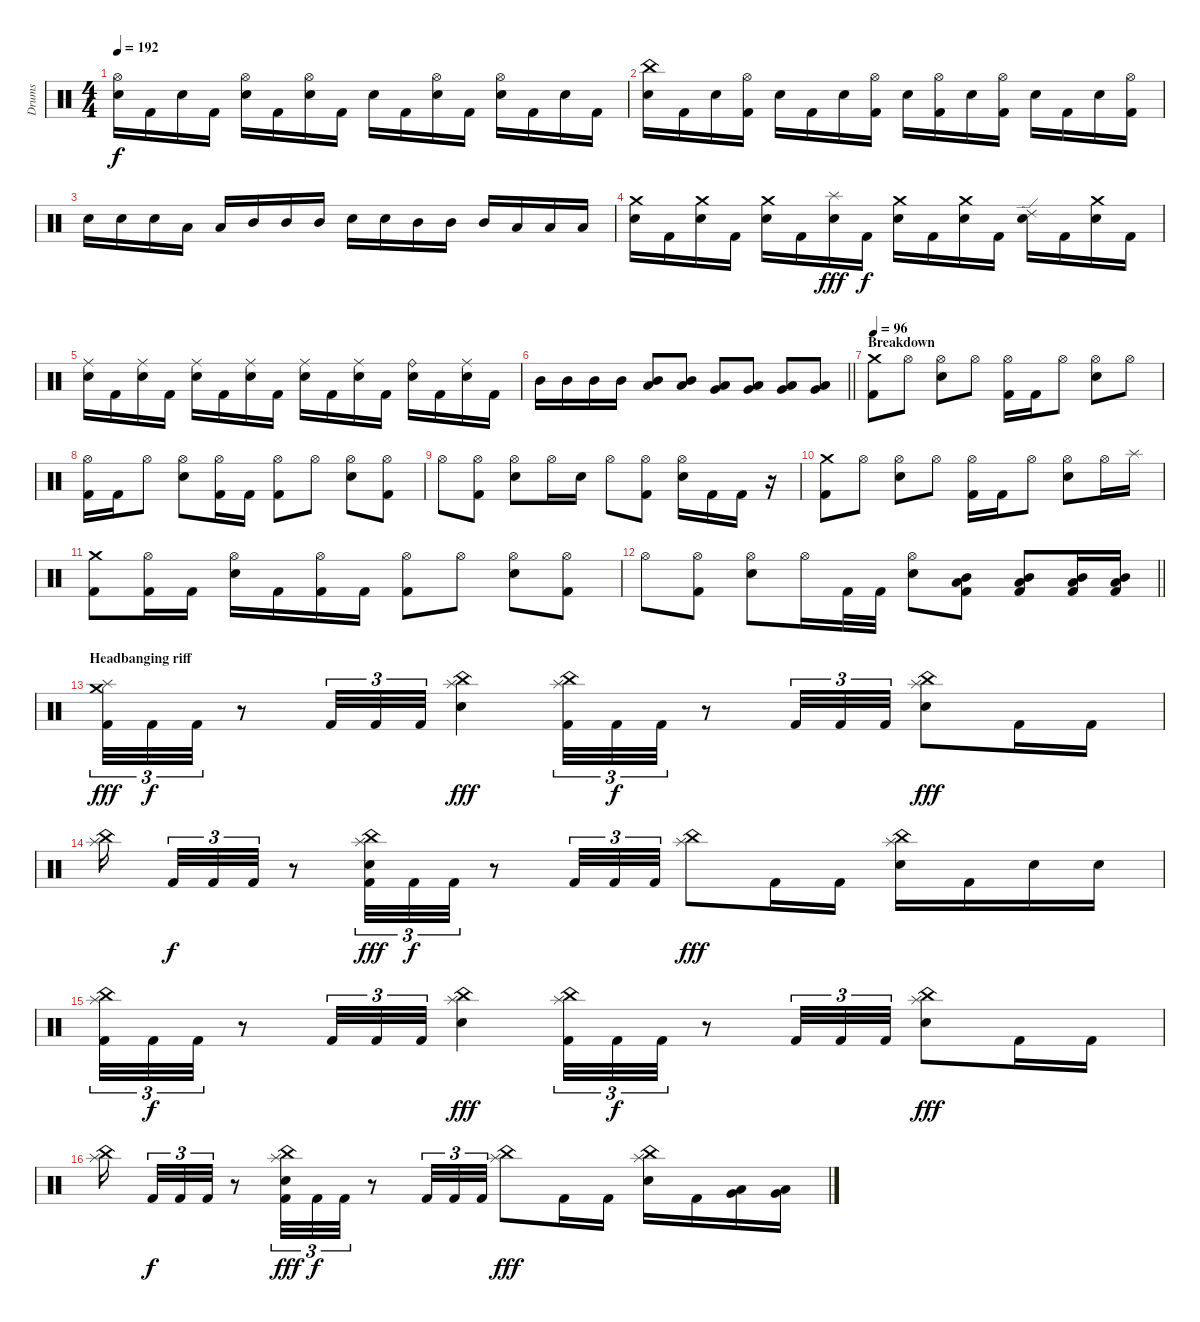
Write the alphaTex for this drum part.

\track ("Drums" "Drums") {instrument percussion}
\staff {score}
\articulation defaults
\ts (4 4)
\tempo 192
\clef neutral
\ks c
("Hi-Hat (open)" "Electric Snare (hit)").16{dy f} "Kick (hit) 2".16 "Electric Snare (hit)".16 "Kick (hit) 2".16 ("Hi-Hat (open)" "Electric Snare (hit)").16 "Kick (hit) 2".16 ("Hi-Hat (open)" "Electric Snare (hit)").16 "Kick (hit) 2".16 "Electric Snare (hit)".16 "Kick (hit) 2".16 ("Hi-Hat (open)" "Electric Snare (hit)").16 "Kick (hit) 2".16 ("Hi-Hat (open)" "Electric Snare (hit)").16 "Kick (hit) 2".16 "Electric Snare (hit)".16 "Kick (hit) 2".16 |
("China (hit)" "Electric Snare (hit)").16 "Kick (hit) 2".16 "Electric Snare (hit)".16 ("Hi-Hat (open)" "Kick (hit) 2").16 "Electric Snare (hit)".16 "Kick (hit) 2".16 "Electric Snare (hit)".16 ("Hi-Hat (open)" "Kick (hit) 2").16 "Electric Snare (hit)".16 ("Hi-Hat (open)" "Kick (hit) 2").16 "Electric Snare (hit)".16 ("Hi-Hat (open)" "Kick (hit) 2").16 "Electric Snare (hit)".16 "Kick (hit) 2".16 "Electric Snare (hit)".16 ("Hi-Hat (open)" "Kick (hit) 2").16 |
"Electric Snare (hit)".16 "Electric Snare (hit)".16 "Electric Snare (hit)".16 "Low Tom (hit)".16 "Low Tom (hit)".16 "Mid Tom (hit)".16 "Mid Tom (hit)".16 "Mid Tom (hit)".16 "Electric Snare (hit)".16 "Electric Snare (hit)".16 "Mid Tom (hit)".16 "Mid Tom (hit)".16 "Mid Tom (hit)".16 "Low Tom (hit)".16 "Low Tom (hit)".16 "Low Tom (hit)".16 |
("Crash medium (hit)" "Electric Snare (hit)").16 "Kick (hit) 2".16 ("Crash medium (hit)" "Electric Snare (hit)").16 "Kick (hit) 2".16 ("Crash medium (hit)" "Electric Snare (hit)").16 "Kick (hit) 2".16 ("Splash (hit)" "Electric Snare (hit)").16{dy fff} "Kick (hit) 2".16{dy f} ("Crash medium (hit)" "Electric Snare (hit)").16 "Kick (hit) 2".16 ("Crash medium (hit)" "Electric Snare (hit)").16 "Kick (hit) 2".16 ("Ride (edge) 2" "Electric Snare (hit)").16 "Kick (hit) 2".16 ("Crash medium (hit)" "Electric Snare (hit)").16 "Kick (hit) 2".16 |
("Ride (middle)" "Electric Snare (hit)").16 "Kick (hit) 2".16 ("Ride (middle)" "Electric Snare (hit)").16 "Kick (hit) 2".16 ("Ride (middle)" "Electric Snare (hit)").16 "Kick (hit) 2".16 ("Ride (middle)" "Electric Snare (hit)").16 "Kick (hit) 2".16 ("Ride (middle)" "Electric Snare (hit)").16 "Kick (hit) 2".16 ("Ride (middle)" "Electric Snare (hit)").16 "Kick (hit) 2".16 ("Ride (bell)" "Electric Snare (hit)").16 "Kick (hit) 2".16 ("Ride (middle)" "Electric Snare (hit)").16 "Kick (hit) 2".16 |
\barLineRight lightlight "Mid Tom (hit)".16 "Mid Tom (hit)".16 "Mid Tom (hit)".16 "Mid Tom (hit)".16
("Mid Tom (hit)" "Low Tom (hit)").8 ("Mid Tom (hit)" "Low Tom (hit)").8 ("Low Tom (hit)" "Very Low Tom (hit)").8 ("Low Tom (hit)" "Very Low Tom (hit)").8 ("Very Low Tom (hit)" "Low Floor Tom (hit)").8 ("Very Low Tom (hit)" "Low Floor Tom (hit)").8 |
\section ("" "Breakdown")
\tempo 96
("Crash medium (hit)" "Kick (hit) 2").8 "Hi-Hat (open)".8 ("Hi-Hat (open)" "Electric Snare (hit)").8 "Hi-Hat (open)".8 ("Hi-Hat (open)" "Kick (hit) 2").16 "Kick (hit) 2".16 "Hi-Hat (open)".8 ("Hi-Hat (open)" "Electric Snare (hit)").8 "Hi-Hat (open)".8 |
("Hi-Hat (open)" "Kick (hit) 2").16 "Kick (hit) 2".16 "Hi-Hat (open)".8 ("Hi-Hat (open)" "Electric Snare (hit)").8 ("Hi-Hat (open)" "Kick (hit) 2").16 "Kick (hit) 2".16 ("Hi-Hat (open)" "Kick (hit) 2").8 "Hi-Hat (open)".8 ("Hi-Hat (open)" "Electric Snare (hit)").8 ("Hi-Hat (open)" "Kick (hit) 2").8 |
"Hi-Hat (open)".8 ("Hi-Hat (open)" "Kick (hit) 2").8 ("Hi-Hat (open)" "Electric Snare (hit)").8 "Hi-Hat (open)".16 "Electric Snare (hit)".16 "Hi-Hat (open)".8 ("Hi-Hat (open)" "Kick (hit) 2").8 ("Hi-Hat (open)" "Electric Snare (hit)").16 "Kick (hit) 2".16 "Kick (hit) 2".16 r.16 |
("Crash medium (hit)" "Kick (hit) 2").8 "Hi-Hat (open)".8 ("Hi-Hat (open)" "Electric Snare (hit)").8 "Hi-Hat (open)".8 ("Hi-Hat (open)" "Kick (hit) 2").16 "Kick (hit) 2".16 "Hi-Hat (open)".8 ("Hi-Hat (open)" "Electric Snare (hit)").8 "Hi-Hat (open)".16 "Splash (hit)".16 |
("Crash medium (hit)" "Kick (hit) 2").8 ("Hi-Hat (open)" "Kick (hit) 2").16 "Kick (hit) 2".16 ("Hi-Hat (open)" "Electric Snare (hit)").16 "Kick (hit) 2".16 ("Hi-Hat (open)" "Kick (hit) 2").16 "Kick (hit) 2".16 ("Hi-Hat (open)" "Kick (hit) 2").8 "Hi-Hat (open)".8 ("Hi-Hat (open)" "Electric Snare (hit)").8 ("Hi-Hat (open)" "Kick (hit) 2").8 |
\barLineRight lightlight "Hi-Hat (open)".8
("Hi-Hat (open)" "Kick (hit) 2").8 ("Hi-Hat (open)" "Electric Snare (hit)").8 "Hi-Hat (open)".16 "Kick (hit) 2".32 "Kick (hit) 2".32 ("Hi-Hat (open)" "Electric Snare (hit)").8 ("Mid Tom (hit)" "Low Tom (hit)" "Kick (hit) 2").8 ("Mid Tom (hit)" "Low Tom (hit)" "Kick (hit) 2").8 ("Mid Tom (hit)" "Low Tom (hit)" "Kick (hit) 2").16 ("Mid Tom (hit)" "Low Tom (hit)" "Kick (hit) 2").16 |
\section ("" "Headbanging riff")
("Crash medium (hit)" "Splash (hit)" "Kick (hit) 2").32{tu (3 2) dy fff} "Kick (hit) 2".32{tu (3 2) dy f} "Kick (hit) 2".32{tu (3 2)} r.8 "Kick (hit) 2".32{tu (3 2)} "Kick (hit) 2".32{tu (3 2)} "Kick (hit) 2".32{tu (3 2)} ("China (hit)" "Splash (hit)" "Electric Snare (hit)").4{dy fff} ("China (hit)" "Splash (hit)" "Kick (hit) 2").32{tu (3 2)} "Kick (hit) 2".32{tu (3 2) dy f} "Kick (hit) 2".32{tu (3 2)} r.8 "Kick (hit) 2".32{tu (3 2)} "Kick (hit) 2".32{tu (3 2)} "Kick (hit) 2".32{tu (3 2)} ("China (hit)" "Splash (hit)" "Electric Snare (hit)").8{dy fff} "Kick (hit) 2".16 "Kick (hit) 2".16 |
("China (hit)" "Splash (hit)").16{beam splitsecondary} "Kick (hit) 2".32{tu (3 2) dy f} "Kick (hit) 2".32{tu (3 2)} "Kick (hit) 2".32{tu (3 2)} r.8 ("China (hit)" "Splash (hit)" "Electric Snare (hit)" "Kick (hit) 2").32{tu (3 2) dy fff} "Kick (hit) 2".32{tu (3 2) dy f} "Kick (hit) 2".32{tu (3 2)} r.8 "Kick (hit) 2".32{tu (3 2)} "Kick (hit) 2".32{tu (3 2)} "Kick (hit) 2".32{tu (3 2)} ("China (hit)" "Splash (hit)").8{dy fff} "Kick (hit) 2".16 "Kick (hit) 2".16 ("China (hit)" "Splash (hit)" "Electric Snare (hit)").16 "Kick (hit) 2".16 "Electric Snare (hit)".16 "Electric Snare (hit)".16 |
("China (hit)" "Splash (hit)" "Kick (hit) 2").32{tu (3 2)} "Kick (hit) 2".32{tu (3 2) dy f} "Kick (hit) 2".32{tu (3 2)} r.8 "Kick (hit) 2".32{tu (3 2)} "Kick (hit) 2".32{tu (3 2)} "Kick (hit) 2".32{tu (3 2)} ("China (hit)" "Splash (hit)" "Electric Snare (hit)").4{dy fff} ("China (hit)" "Splash (hit)" "Kick (hit) 2").32{tu (3 2)} "Kick (hit) 2".32{tu (3 2) dy f} "Kick (hit) 2".32{tu (3 2)} r.8 "Kick (hit) 2".32{tu (3 2)} "Kick (hit) 2".32{tu (3 2)} "Kick (hit) 2".32{tu (3 2)} ("China (hit)" "Splash (hit)" "Electric Snare (hit)").8{dy fff} "Kick (hit) 2".16 "Kick (hit) 2".16 |
("China (hit)" "Splash (hit)").16{beam splitsecondary} "Kick (hit) 2".32{tu (3 2) dy f} "Kick (hit) 2".32{tu (3 2)} "Kick (hit) 2".32{tu (3 2)} r.8 ("China (hit)" "Splash (hit)" "Electric Snare (hit)" "Kick (hit) 2").32{tu (3 2) dy fff} "Kick (hit) 2".32{tu (3 2) dy f} "Kick (hit) 2".32{tu (3 2)} r.8 "Kick (hit) 2".32{tu (3 2)} "Kick (hit) 2".32{tu (3 2)} "Kick (hit) 2".32{tu (3 2)} ("China (hit)" "Splash (hit)").8{dy fff} "Kick (hit) 2".16 "Kick (hit) 2".16 ("China (hit)" "Splash (hit)" "Electric Snare (hit)").16 "Kick (hit) 2".16 ("Low Floor Tom (hit)" "Very Low Tom (hit)").16 ("Low Floor Tom (hit)" "Very Low Tom (hit)").16
